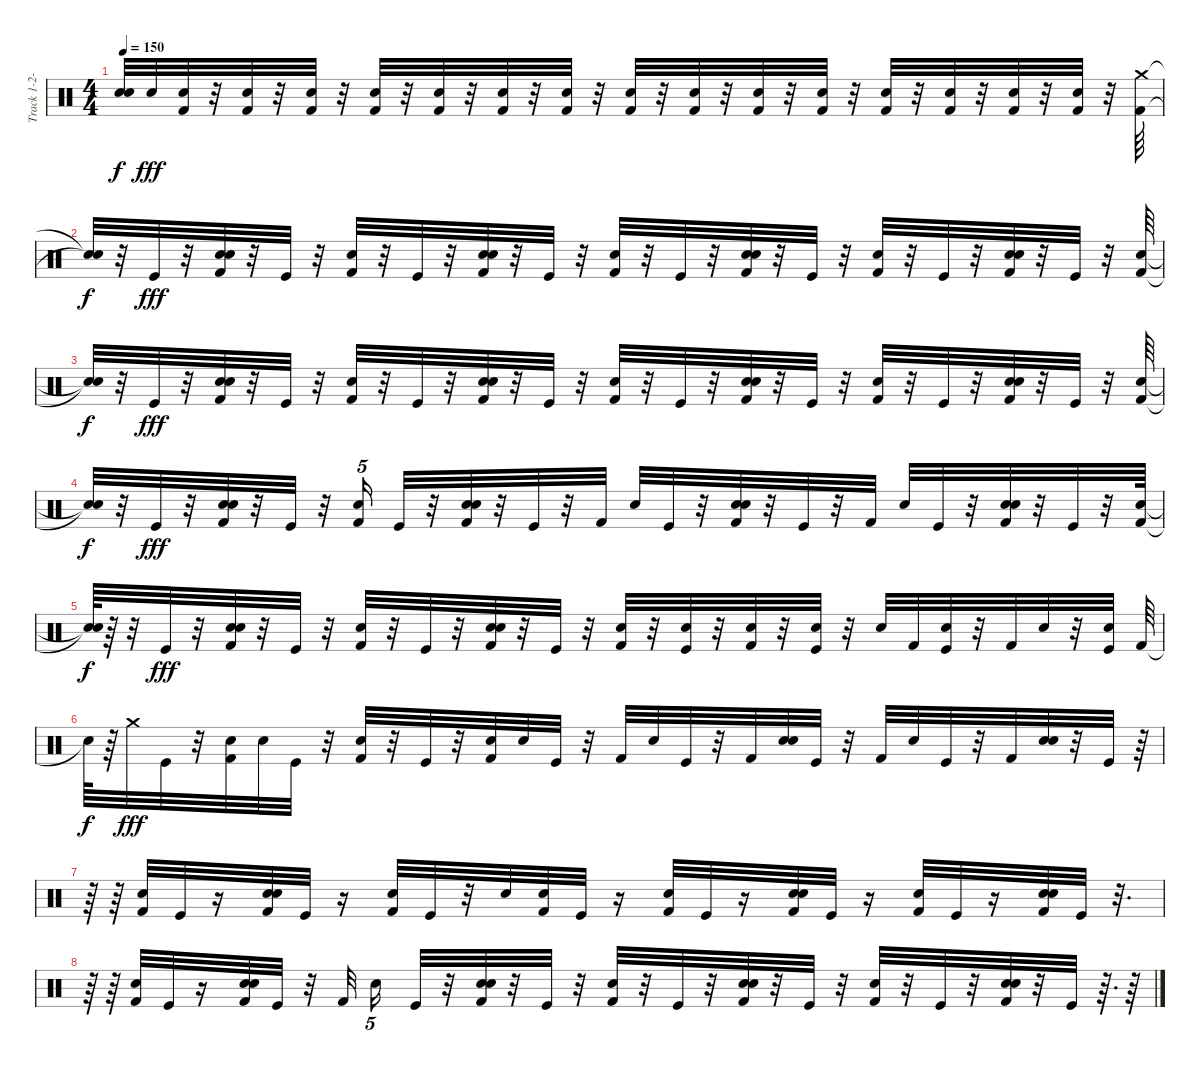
\track ("Track 1-2-3-4-5-6-7-8-9-10-11-12-13-14-1" "Track 1-2-") {instrument percussion}
\staff {score}
\articulation defaults
\ts (4 4)
\tempo 150
\clef neutral
\ks c
("Snare (hit)"{t} "Snare (hit)"{t}).32{dy f} "Snare (hit) 2".32{dy fff} ("Kick (hit) 2" "Snare (hit) 2").32 r.32 ("Kick (hit) 2" "Snare (hit) 2").32 r.32 ("Kick (hit) 2" "Snare (hit) 2").32 r.32 ("Snare (hit) 2" "Kick (hit) 2").32 r.32 ("Kick (hit) 2" "Snare (hit) 2").32 r.32 ("Snare (hit) 2" "Kick (hit) 2").32 r.32 ("Kick (hit) 2" "Snare (hit) 2").32 r.32 ("Kick (hit) 2" "Snare (hit) 2").32 r.32 ("Kick (hit) 2" "Snare (hit) 2").32 r.32 ("Snare (hit) 2" "Kick (hit) 2").32 r.32 ("Kick (hit) 2" "Snare (hit) 2").32 r.32 ("Kick (hit) 2" "Snare (hit) 2").32 r.32 ("Snare (hit) 2" "Kick (hit) 2").32 r.32 ("Snare (hit) 2" "Kick (hit) 2").32 r.32 ("Snare (hit) 2" "Kick (hit) 2").32 r.32 ("Kick (hit) 2" "Crash medium (hit)").64 |
("Snare (hit)"{t} "Snare (hit)"{t}).32{dy f} r.32 "Kick (hit)".32{dy fff} r.32 ("Snare (hit) 2" "Kick (hit) 2" "Snare (hit)").32 r.32 "Kick (hit)".32 r.32 ("Kick (hit) 2" "Snare (hit)").32 r.32 "Kick (hit)".32 r.32 ("Kick (hit) 2" "Snare (hit)" "Snare (hit) 2").32 r.32 "Kick (hit)".32 r.32 ("Kick (hit) 2" "Snare (hit)").32 r.32 "Kick (hit)".32 r.32 ("Kick (hit) 2" "Snare (hit)" "Snare (hit) 2").32 r.32 "Kick (hit)".32 r.32 ("Kick (hit) 2" "Snare (hit)").32 r.32 "Kick (hit)".32 r.32 ("Kick (hit) 2" "Snare (hit) 2" "Snare (hit)").32 r.32 "Kick (hit)".32 r.32 ("Kick (hit) 2" "Snare (hit)").64 |
("Snare (hit)"{t} "Snare (hit)"{t}).32{dy f} r.32 "Kick (hit)".32{dy fff} r.32 ("Snare (hit) 2" "Kick (hit) 2" "Snare (hit)").32 r.32 "Kick (hit)".32 r.32 ("Kick (hit) 2" "Snare (hit)").32 r.32 "Kick (hit)".32 r.32 ("Snare (hit) 2" "Kick (hit) 2" "Snare (hit)").32 r.32 "Kick (hit)".32 r.32 ("Kick (hit) 2" "Snare (hit)").32 r.32 "Kick (hit)".32 r.32 ("Snare (hit) 2" "Snare (hit)" "Kick (hit) 2").32 r.32 "Kick (hit)".32 r.32 ("Kick (hit) 2" "Snare (hit)").32 r.32 "Kick (hit)".32 r.32 ("Snare (hit) 2" "Snare (hit)" "Kick (hit) 2").32 r.32 "Kick (hit)".32 r.32 ("Kick (hit) 2" "Snare (hit)").64 |
("Snare (hit)"{t} "Snare (hit)"{t}).32{dy f} r.32 "Kick (hit)".32{dy fff} r.32 ("Kick (hit) 2" "Snare (hit) 2" "Snare (hit)").32 r.32 "Kick (hit)".32 r.32 ("Kick (hit) 2" "Snare (hit)").16{tu (5 4)} "Kick (hit)".32 r.32 ("Snare (hit) 2" "Kick (hit) 2" "Snare (hit)").32 r.32 "Kick (hit)".32 r.32 "Kick (hit) 2".32 "Snare (hit)".32 "Kick (hit)".32 r.32 ("Snare (hit)" "Snare (hit) 2" "Kick (hit) 2").32 r.32 "Kick (hit)".32 r.32 "Kick (hit) 2".32 "Snare (hit)".32 "Kick (hit)".32 r.32 ("Snare (hit) 2" "Snare (hit)" "Kick (hit) 2").32 r.32 "Kick (hit)".32 r.32 ("Kick (hit) 2" "Snare (hit)").64 |
("Snare (hit)"{t} "Snare (hit)"{t}).64{dy f} r.64 r.32 "Kick (hit)".32{dy fff} r.32 ("Snare (hit)" "Snare (hit) 2" "Kick (hit) 2").32 r.32 "Kick (hit)".32 r.32 ("Kick (hit) 2" "Snare (hit)").32 r.32 "Kick (hit)".32 r.32 ("Snare (hit) 2" "Snare (hit)" "Kick (hit) 2").32 r.32 "Kick (hit)".32 r.32 ("Snare (hit)" "Kick (hit) 2").32 r.32 ("Kick (hit)" "Snare (hit) 2").32 r.32 ("Snare (hit) 2" "Kick (hit) 2").32 r.32 ("Kick (hit)" "Snare (hit) 2").32 r.32 "Snare (hit) 2".32 "Kick (hit) 2".32 ("Kick (hit)" "Snare (hit) 2").32 r.32 "Kick (hit) 2".32 "Snare (hit) 2".32 r.32 ("Snare (hit) 2" "Kick (hit)").32 "Kick (hit) 2".64 |
"Snare (hit)"{t}.64{dy f} r.64 "Crash medium (hit)".32{dy fff} "Kick (hit)".32 r.32 ("Snare (hit) 2" "Kick (hit) 2").32 "Snare (hit)".32 "Kick (hit)".32 r.32 ("Kick (hit) 2" "Snare (hit)").32 r.32 "Kick (hit)".32 r.32 ("Kick (hit) 2" "Snare (hit)").32 "Snare (hit) 2".32 "Kick (hit)".32 r.32 "Kick (hit) 2".32 "Snare (hit)".32 "Kick (hit)".32 r.32 "Kick (hit) 2".32 ("Snare (hit)" "Snare (hit) 2").32 "Kick (hit)".32 r.32 "Kick (hit) 2".32 "Snare (hit)".32 "Kick (hit)".32 r.32 "Kick (hit) 2".32 ("Snare (hit) 2" "Snare (hit)").32 r.32 "Kick (hit)".32 r.64 |
r.64 r.64 ("Kick (hit) 2" "Snare (hit)").32 "Kick (hit)".32 r.16 ("Snare (hit) 2" "Kick (hit) 2" "Snare (hit)").32 "Kick (hit)".32 r.16 ("Kick (hit) 2" "Snare (hit)").32 "Kick (hit)".32 r.32 "Snare (hit) 2".32 ("Kick (hit) 2" "Snare (hit)").32 "Kick (hit)".32 r.16 ("Kick (hit) 2" "Snare (hit)").32 "Kick (hit)".32 r.16 ("Snare (hit) 2" "Snare (hit)" "Kick (hit) 2").32 "Kick (hit)".32 r.16 ("Kick (hit) 2" "Snare (hit)").32 "Kick (hit)".32 r.16 ("Snare (hit) 2" "Snare (hit)" "Kick (hit) 2").32 "Kick (hit)".32 r.32{d} |
r.64 r.64 ("Kick (hit) 2" "Snare (hit)").32 "Kick (hit)".32 r.16 ("Kick (hit) 2" "Snare (hit) 2" "Snare (hit)").32 "Kick (hit)".32 r.32 "Kick (hit) 2".32{beam splitsecondary} "Snare (hit)".16{tu (5 4)} "Kick (hit)".32 r.32 ("Snare (hit) 2" "Kick (hit) 2" "Snare (hit)").32 r.32 "Kick (hit)".32 r.32 ("Kick (hit) 2" "Snare (hit)").32 r.32 "Kick (hit)".32 r.32 ("Snare (hit)" "Snare (hit) 2" "Kick (hit) 2").32 r.32 "Kick (hit)".32 r.32 ("Kick (hit) 2" "Snare (hit)").32 r.32 "Kick (hit)".32 r.32 ("Snare (hit) 2" "Snare (hit)" "Kick (hit) 2").32 r.32 "Kick (hit)".32 r.64{d} r.64
